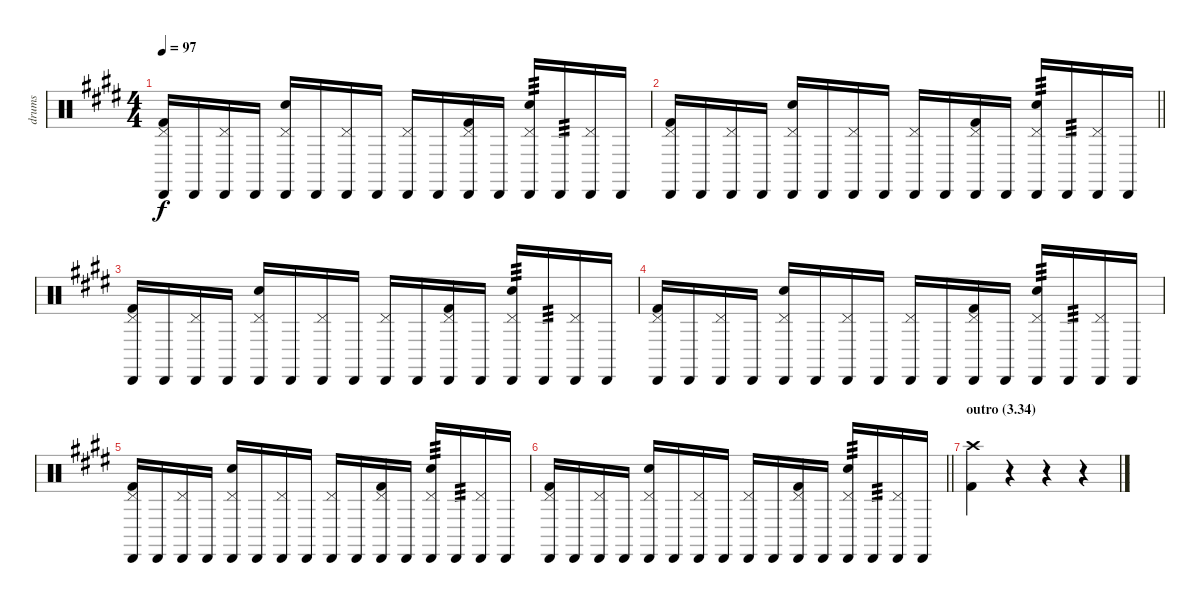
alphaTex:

\track ("drums" "drums") {instrument percussion}
\staff {score}
\articulation defaults
\ts (4 4)
\tempo 97
\clef neutral
\ks e
("Pedal Hi-Hat (hit)" "Cabasa (hit)" "Kick (hit) 2").16{dy f} "Cabasa (hit)".16 ("Pedal Hi-Hat (hit)" "Cabasa (hit)").16 "Cabasa (hit)".16 ("Pedal Hi-Hat (hit)" "Cabasa (hit)" "Electric Snare (hit)").16 "Cabasa (hit)".16 ("Pedal Hi-Hat (hit)" "Cabasa (hit)").16 "Cabasa (hit)".16 ("Pedal Hi-Hat (hit)" "Cabasa (hit)").16 "Cabasa (hit)".16 ("Pedal Hi-Hat (hit)" "Cabasa (hit)" "Kick (hit) 2").16 "Cabasa (hit)".16 ("Pedal Hi-Hat (hit)" "Cabasa (hit)" "Electric Snare (hit)").16{tp 3} "Cabasa (hit)".16{tp 3} ("Pedal Hi-Hat (hit)" "Cabasa (hit)").16 "Cabasa (hit)".16 |
\barLineRight lightlight
("Pedal Hi-Hat (hit)" "Cabasa (hit)" "Kick (hit) 2").16 "Cabasa (hit)".16 ("Pedal Hi-Hat (hit)" "Cabasa (hit)").16 "Cabasa (hit)".16 ("Pedal Hi-Hat (hit)" "Cabasa (hit)" "Electric Snare (hit)").16 "Cabasa (hit)".16 ("Pedal Hi-Hat (hit)" "Cabasa (hit)").16 "Cabasa (hit)".16 ("Pedal Hi-Hat (hit)" "Cabasa (hit)").16 "Cabasa (hit)".16 ("Pedal Hi-Hat (hit)" "Cabasa (hit)" "Kick (hit) 2").16 "Cabasa (hit)".16 ("Pedal Hi-Hat (hit)" "Cabasa (hit)" "Electric Snare (hit)").16{tp 3} "Cabasa (hit)".16{tp 3} ("Pedal Hi-Hat (hit)" "Cabasa (hit)").16 "Cabasa (hit)".16 |
("Pedal Hi-Hat (hit)" "Cabasa (hit)" "Kick (hit) 2").16 "Cabasa (hit)".16 ("Pedal Hi-Hat (hit)" "Cabasa (hit)").16 "Cabasa (hit)".16 ("Pedal Hi-Hat (hit)" "Cabasa (hit)" "Electric Snare (hit)").16 "Cabasa (hit)".16 ("Pedal Hi-Hat (hit)" "Cabasa (hit)").16 "Cabasa (hit)".16 ("Pedal Hi-Hat (hit)" "Cabasa (hit)").16 "Cabasa (hit)".16 ("Pedal Hi-Hat (hit)" "Cabasa (hit)" "Kick (hit) 2").16 "Cabasa (hit)".16 ("Pedal Hi-Hat (hit)" "Cabasa (hit)" "Electric Snare (hit)").16{tp 3} "Cabasa (hit)".16{tp 3} ("Pedal Hi-Hat (hit)" "Cabasa (hit)").16 "Cabasa (hit)".16 |
("Pedal Hi-Hat (hit)" "Cabasa (hit)" "Kick (hit) 2").16 "Cabasa (hit)".16 ("Pedal Hi-Hat (hit)" "Cabasa (hit)").16 "Cabasa (hit)".16 ("Pedal Hi-Hat (hit)" "Cabasa (hit)" "Electric Snare (hit)").16 "Cabasa (hit)".16 ("Pedal Hi-Hat (hit)" "Cabasa (hit)").16 "Cabasa (hit)".16 ("Pedal Hi-Hat (hit)" "Cabasa (hit)").16 "Cabasa (hit)".16 ("Pedal Hi-Hat (hit)" "Cabasa (hit)" "Kick (hit) 2").16 "Cabasa (hit)".16 ("Pedal Hi-Hat (hit)" "Cabasa (hit)" "Electric Snare (hit)").16{tp 3} "Cabasa (hit)".16{tp 3} ("Pedal Hi-Hat (hit)" "Cabasa (hit)").16 "Cabasa (hit)".16 |
("Pedal Hi-Hat (hit)" "Cabasa (hit)" "Kick (hit) 2").16 "Cabasa (hit)".16 ("Pedal Hi-Hat (hit)" "Cabasa (hit)").16 "Cabasa (hit)".16 ("Pedal Hi-Hat (hit)" "Cabasa (hit)" "Electric Snare (hit)").16 "Cabasa (hit)".16 ("Pedal Hi-Hat (hit)" "Cabasa (hit)").16 "Cabasa (hit)".16 ("Pedal Hi-Hat (hit)" "Cabasa (hit)").16 "Cabasa (hit)".16 ("Pedal Hi-Hat (hit)" "Cabasa (hit)" "Kick (hit) 2").16 "Cabasa (hit)".16 ("Pedal Hi-Hat (hit)" "Cabasa (hit)" "Electric Snare (hit)").16{tp 3} "Cabasa (hit)".16{tp 3} ("Pedal Hi-Hat (hit)" "Cabasa (hit)").16 "Cabasa (hit)".16 |
\barLineRight lightlight
("Pedal Hi-Hat (hit)" "Cabasa (hit)" "Kick (hit) 2").16 "Cabasa (hit)".16 ("Pedal Hi-Hat (hit)" "Cabasa (hit)").16 "Cabasa (hit)".16 ("Pedal Hi-Hat (hit)" "Cabasa (hit)" "Electric Snare (hit)").16 "Cabasa (hit)".16 ("Pedal Hi-Hat (hit)" "Cabasa (hit)").16 "Cabasa (hit)".16 ("Pedal Hi-Hat (hit)" "Cabasa (hit)").16 "Cabasa (hit)".16 ("Pedal Hi-Hat (hit)" "Cabasa (hit)" "Kick (hit) 2").16 "Cabasa (hit)".16 ("Pedal Hi-Hat (hit)" "Cabasa (hit)" "Electric Snare (hit)").16{tp 3} "Cabasa (hit)".16{tp 3} ("Pedal Hi-Hat (hit)" "Cabasa (hit)").16 "Cabasa (hit)".16 |
\section ("" "outro (3.34)")
("Crash high (hit)" "Kick (hit) 2").4 r.4 r.4 r.4
